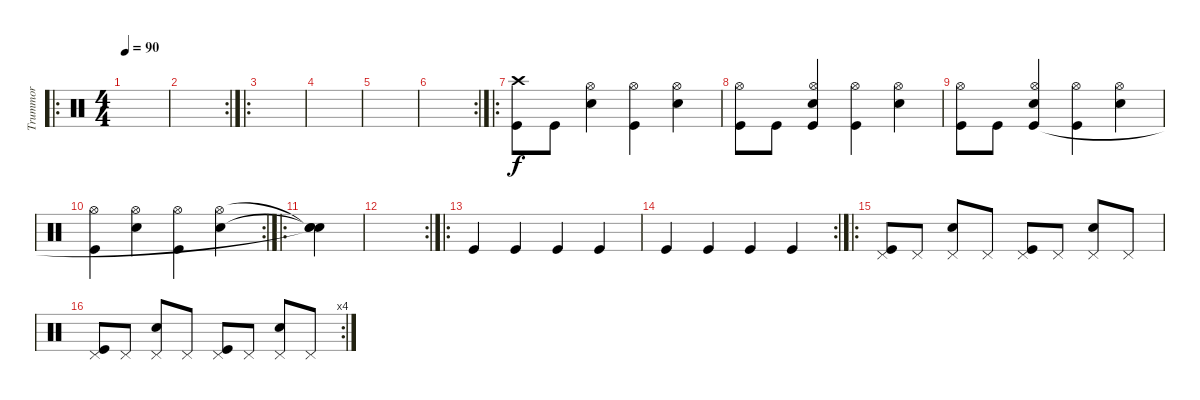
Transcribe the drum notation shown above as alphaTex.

\track ("Trummor" "Trummor") {instrument percussion}
\staff {score}
\articulation defaults
\ro
\ts (4 4)
\tempo 90
\clef neutral
\ks c
|
\rc 2
|
\ro
|
|
|
\rc 2
|
\ro
("Crash high (hit)" "Kick (hit)").8 "Kick (hit)".8 ("Hi-Hat (open)" "Snare (hit) 2").4 ("Hi-Hat (open)" "Kick (hit)").4 ("Hi-Hat (open)" "Snare (hit) 2").4 |
("Hi-Hat (open)" "Kick (hit)").8 "Kick (hit)".8 ("Hi-Hat (open)" "Snare (hit) 2" "Kick (hit)").4 ("Hi-Hat (open)" "Kick (hit)").4 ("Hi-Hat (open)" "Snare (hit) 2").4 |
("Hi-Hat (open)" "Kick (hit)").8 "Kick (hit)".8 ("Hi-Hat (open)" "Snare (hit) 2" "Kick (hit)").4 ("Hi-Hat (open)" "Kick (hit)").4 ("Hi-Hat (open)" "Snare (hit) 2").4 |
\rc 2
("Hi-Hat (open)" "Kick (hit)").4 ("Hi-Hat (open)" "Snare (hit) 2").4 ("Hi-Hat (open)" "Kick (hit)").4 ("Hi-Hat (open)" "Snare (hit) 2").4 |
\ro
("Snare (hit)"{t} "Snare (hit)"{t} "Snare (hit)"{t}).4 |
\rc 2
|
\ro "Kick (hit)".4 "Kick (hit)".4 "Kick (hit)".4 "Kick (hit)".4
|
\rc 2 "Kick (hit)".4 "Kick (hit)".4 "Kick (hit)".4 "Kick (hit)".4
|
\ro
("Pedal Hi-Hat (hit)" "Kick (hit)").8 "Pedal Hi-Hat (hit)".8 ("Pedal Hi-Hat (hit)" "Snare (hit) 2").8 "Pedal Hi-Hat (hit)".8 ("Pedal Hi-Hat (hit)" "Kick (hit)").8 "Pedal Hi-Hat (hit)".8 ("Pedal Hi-Hat (hit)" "Snare (hit) 2").8 "Pedal Hi-Hat (hit)".8 |
\rc 4
("Pedal Hi-Hat (hit)" "Kick (hit)").8 "Pedal Hi-Hat (hit)".8 ("Pedal Hi-Hat (hit)" "Snare (hit) 2").8 "Pedal Hi-Hat (hit)".8 ("Pedal Hi-Hat (hit)" "Kick (hit)").8 "Pedal Hi-Hat (hit)".8 ("Pedal Hi-Hat (hit)" "Snare (hit) 2").8 "Pedal Hi-Hat (hit)".8
